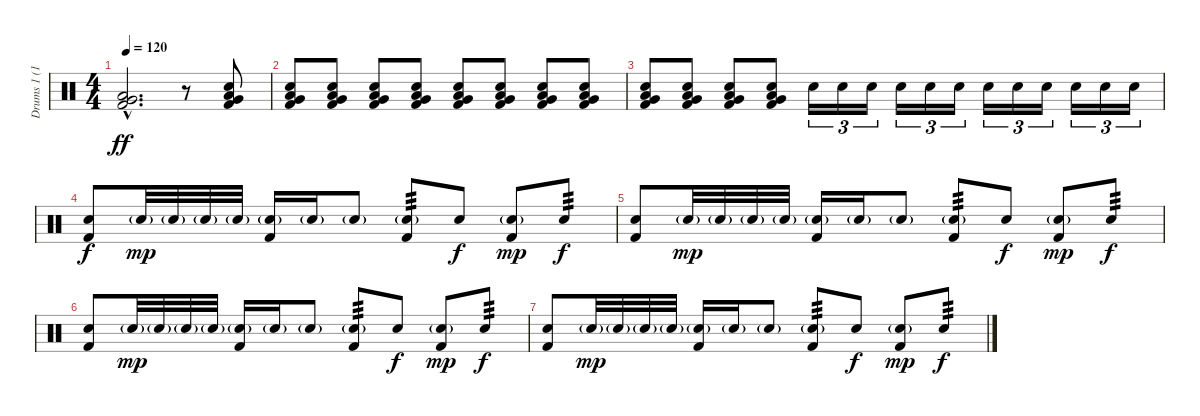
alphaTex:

\track ("Drums 1 (16)" "Drums 1 (1") {instrument percussion}
\staff {score}
\articulation defaults
\ts (4 4)
\tempo 120
\clef neutral
\ks c
("Kick (hit) 2"{hac} "Low Floor Tom (hit)"{hac} "Very Low Tom (hit)"{hac}).2{d dy ff} r.8 ("Kick (hit) 2" "Snare (hit) 2" "Low Floor Tom (hit)" "Very Low Tom (hit)").8 |
("Kick (hit) 2" "Snare (hit) 2" "Low Floor Tom (hit)" "Very Low Tom (hit)").8{volume 4 balance 8} ("Kick (hit) 2" "Snare (hit) 2" "Low Floor Tom (hit)" "Very Low Tom (hit)").8{volume 5} ("Kick (hit) 2" "Snare (hit) 2" "Low Floor Tom (hit)" "Very Low Tom (hit)").8{volume 6} ("Kick (hit) 2" "Snare (hit) 2" "Low Floor Tom (hit)" "Very Low Tom (hit)").8{volume 7} ("Kick (hit) 2" "Snare (hit) 2" "Low Floor Tom (hit)" "Very Low Tom (hit)").8{volume 8} ("Kick (hit) 2" "Snare (hit) 2" "Low Floor Tom (hit)" "Very Low Tom (hit)").8{volume 9} ("Kick (hit) 2" "Snare (hit) 2" "Low Floor Tom (hit)" "Very Low Tom (hit)").8{volume 10} ("Kick (hit) 2" "Snare (hit) 2" "Low Floor Tom (hit)" "Very Low Tom (hit)").8{volume 11} |
("Kick (hit) 2" "Snare (hit) 2" "Low Floor Tom (hit)" "Very Low Tom (hit)").8{volume 12} ("Kick (hit) 2" "Snare (hit) 2" "Low Floor Tom (hit)" "Very Low Tom (hit)").8{volume 13} ("Kick (hit) 2" "Snare (hit) 2" "Low Floor Tom (hit)" "Very Low Tom (hit)").8{volume 14} ("Kick (hit) 2" "Snare (hit) 2" "Low Floor Tom (hit)" "Very Low Tom (hit)").8{volume 15} "Snare (hit) 2".16{tu (3 2) volume 16 balance 15} "Snare (hit) 2".16{tu (3 2)} "Snare (hit) 2".16{tu (3 2) balance 15} "Snare (hit) 2".16{tu (3 2) balance 8} "Snare (hit) 2".16{tu (3 2)} "Snare (hit) 2".16{tu (3 2) balance 8} "Snare (hit) 2".16{tu (3 2) balance 1} "Snare (hit) 2".16{tu (3 2)} "Snare (hit) 2".16{tu (3 2) balance 1} "Snare (hit) 2".16{tu (3 2) balance 8} "Snare (hit) 2".16{tu (3 2)} "Snare (hit) 2".16{tu (3 2) balance 8} |
("Snare (hit) 2" "Kick (hit) 2").8{dy f} "Snare (hit) 2"{g}.32{dy mp} "Snare (hit) 2"{g}.32 "Snare (hit) 2"{g}.32 "Snare (hit) 2"{g}.32 ("Snare (hit) 2"{g} "Kick (hit) 2").16 "Snare (hit) 2"{g}.16 "Snare (hit) 2"{g}.8 ("Snare (hit) 2"{g} "Kick (hit) 2").8{tp 3} "Snare (hit) 2".8{dy f} ("Snare (hit) 2"{g} "Kick (hit) 2").8{dy mp} "Snare (hit) 2".8{tp 3 dy f} |
("Snare (hit) 2" "Kick (hit) 2").8 "Snare (hit) 2"{g}.32{dy mp} "Snare (hit) 2"{g}.32 "Snare (hit) 2"{g}.32 "Snare (hit) 2"{g}.32 ("Snare (hit) 2"{g} "Kick (hit) 2").16 "Snare (hit) 2"{g}.16 "Snare (hit) 2"{g}.8 ("Snare (hit) 2"{g} "Kick (hit) 2").8{tp 3} "Snare (hit) 2".8{dy f} ("Snare (hit) 2"{g} "Kick (hit) 2").8{dy mp} "Snare (hit) 2".8{tp 3 dy f} |
("Snare (hit) 2" "Kick (hit) 2").8 "Snare (hit) 2"{g}.32{dy mp} "Snare (hit) 2"{g}.32 "Snare (hit) 2"{g}.32 "Snare (hit) 2"{g}.32 ("Snare (hit) 2"{g} "Kick (hit) 2").16 "Snare (hit) 2"{g}.16 "Snare (hit) 2"{g}.8 ("Snare (hit) 2"{g} "Kick (hit) 2").8{tp 3} "Snare (hit) 2".8{dy f} ("Snare (hit) 2"{g} "Kick (hit) 2").8{dy mp} "Snare (hit) 2".8{tp 3 dy f} |
("Snare (hit) 2" "Kick (hit) 2").8 "Snare (hit) 2"{g}.32{dy mp} "Snare (hit) 2"{g}.32 "Snare (hit) 2"{g}.32 "Snare (hit) 2"{g}.32 ("Snare (hit) 2"{g} "Kick (hit) 2").16 "Snare (hit) 2"{g}.16 "Snare (hit) 2"{g}.8 ("Snare (hit) 2"{g} "Kick (hit) 2").8{tp 3} "Snare (hit) 2".8{dy f} ("Snare (hit) 2"{g} "Kick (hit) 2").8{dy mp} "Snare (hit) 2".8{tp 3 dy f}
